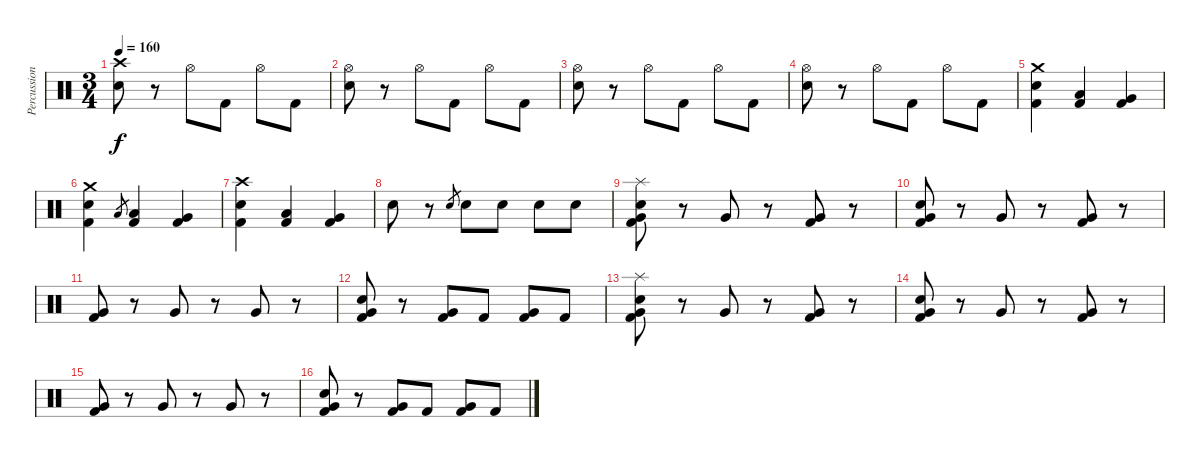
\track ("Percussion" "Percussion") {instrument percussion}
\staff {score}
\articulation defaults
\ts (3 4)
\tempo 160
\clef neutral
\ks c
("Crash high (hit)" "Snare (hit) 2").8{dy f} r.8 "Hi-Hat (open)".8 "Kick (hit) 2".8 "Hi-Hat (open)".8 "Kick (hit) 2".8 |
("Hi-Hat (open)" "Snare (hit) 2").8 r.8 "Hi-Hat (open)".8 "Kick (hit) 2".8 "Hi-Hat (open)".8 "Kick (hit) 2".8 |
("Hi-Hat (open)" "Snare (hit) 2").8 r.8 "Hi-Hat (open)".8 "Kick (hit) 2".8 "Hi-Hat (open)".8 "Kick (hit) 2".8 |
("Hi-Hat (open)" "Snare (hit) 2").8 r.8 "Hi-Hat (open)".8 "Kick (hit) 2".8 "Hi-Hat (open)".8 "Kick (hit) 2".8 |
("Crash medium (hit)" "Snare (hit) 2" "Kick (hit) 2").4 ("Low Tom (hit)" "Kick (hit) 2").4 ("Very Low Tom (hit)" "Kick (hit) 2").4 |
("Crash medium (hit)" "Snare (hit) 2" "Kick (hit) 2").4 "Low Tom (hit)".8{gr} ("Low Tom (hit)" "Kick (hit) 2").4 ("Very Low Tom (hit)" "Kick (hit) 2").4 |
("Crash high (hit)" "Snare (hit) 2" "Kick (hit) 2").4 ("Low Tom (hit)" "Kick (hit) 2").4 ("Very Low Tom (hit)" "Kick (hit) 2").4 |
"Snare (hit) 2".8 r.8 "Snare (hit) 2".8{gr} "Snare (hit) 2".8 "Snare (hit) 2".8 "Snare (hit) 2".8 "Snare (hit) 2".8 |
("Splash (hit)" "Snare (hit) 2" "Kick (hit) 2" "Very Low Tom (hit)").8 r.8 "Very Low Tom (hit)".8 r.8 ("Kick (hit) 2" "Very Low Tom (hit)").8 r.8 |
("Snare (hit) 2" "Kick (hit) 2" "Very Low Tom (hit)").8 r.8 "Very Low Tom (hit)".8 r.8 ("Kick (hit) 2" "Very Low Tom (hit)").8 r.8 |
("Kick (hit) 2" "Very Low Tom (hit)").8 r.8 "Very Low Tom (hit)".8 r.8 "Very Low Tom (hit)".8 r.8 |
("Snare (hit) 2" "Kick (hit) 2" "Very Low Tom (hit)").8 r.8 ("Kick (hit) 2" "Very Low Tom (hit)").8 "Kick (hit) 2".8 ("Kick (hit) 2" "Very Low Tom (hit)").8 "Kick (hit) 2".8 |
("Splash (hit)" "Snare (hit) 2" "Kick (hit) 2" "Very Low Tom (hit)").8 r.8 "Very Low Tom (hit)".8 r.8 ("Kick (hit) 2" "Very Low Tom (hit)").8 r.8 |
("Snare (hit) 2" "Kick (hit) 2" "Very Low Tom (hit)").8 r.8 "Very Low Tom (hit)".8 r.8 ("Kick (hit) 2" "Very Low Tom (hit)").8 r.8 |
("Kick (hit) 2" "Very Low Tom (hit)").8 r.8 "Very Low Tom (hit)".8 r.8 "Very Low Tom (hit)".8 r.8 |
("Snare (hit) 2" "Kick (hit) 2" "Very Low Tom (hit)").8 r.8 ("Kick (hit) 2" "Very Low Tom (hit)").8 "Kick (hit) 2".8 ("Kick (hit) 2" "Very Low Tom (hit)").8 "Kick (hit) 2".8
